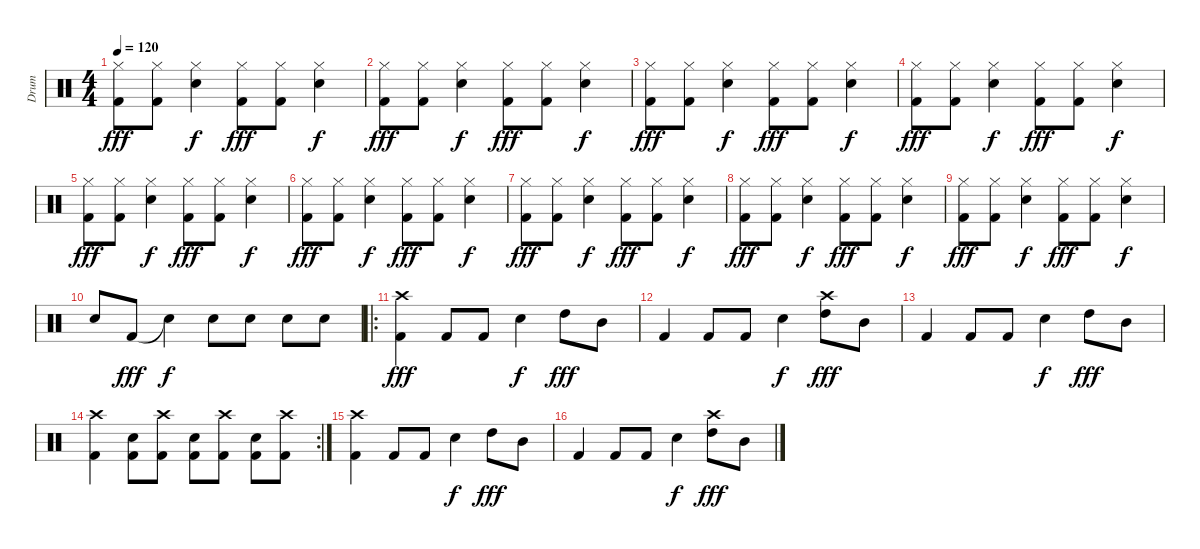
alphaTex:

\track ("Drum" "Drum") {instrument percussion}
\staff {score}
\articulation defaults
\ts (4 4)
\tempo 120
\clef neutral
\ks c
("Hi-Hat (closed)" "Kick (hit) 2").8{dy fff volume 2} ("Hi-Hat (closed)" "Kick (hit) 2").8 ("Hi-Hat (closed)" "Electric Snare (hit)").4{dy f} ("Hi-Hat (closed)" "Kick (hit) 2").8{dy fff} ("Hi-Hat (closed)" "Kick (hit) 2").8 ("Hi-Hat (closed)" "Electric Snare (hit)").4{dy f} |
("Hi-Hat (closed)" "Kick (hit) 2").8{dy fff volume 4} ("Hi-Hat (closed)" "Kick (hit) 2").8 ("Hi-Hat (closed)" "Electric Snare (hit)").4{dy f} ("Hi-Hat (closed)" "Kick (hit) 2").8{dy fff} ("Hi-Hat (closed)" "Kick (hit) 2").8 ("Hi-Hat (closed)" "Electric Snare (hit)").4{dy f} |
("Hi-Hat (closed)" "Kick (hit) 2").8{dy fff volume 6} ("Hi-Hat (closed)" "Kick (hit) 2").8 ("Hi-Hat (closed)" "Electric Snare (hit)").4{dy f} ("Hi-Hat (closed)" "Kick (hit) 2").8{dy fff} ("Hi-Hat (closed)" "Kick (hit) 2").8 ("Hi-Hat (closed)" "Electric Snare (hit)").4{dy f} |
("Hi-Hat (closed)" "Kick (hit) 2").8{dy fff volume 7} ("Hi-Hat (closed)" "Kick (hit) 2").8 ("Hi-Hat (closed)" "Electric Snare (hit)").4{dy f} ("Hi-Hat (closed)" "Kick (hit) 2").8{dy fff} ("Hi-Hat (closed)" "Kick (hit) 2").8 ("Hi-Hat (closed)" "Electric Snare (hit)").4{dy f} |
("Hi-Hat (closed)" "Kick (hit) 2").8{dy fff volume 9} ("Hi-Hat (closed)" "Kick (hit) 2").8 ("Hi-Hat (closed)" "Electric Snare (hit)").4{dy f} ("Hi-Hat (closed)" "Kick (hit) 2").8{dy fff} ("Hi-Hat (closed)" "Kick (hit) 2").8 ("Hi-Hat (closed)" "Electric Snare (hit)").4{dy f} |
("Hi-Hat (closed)" "Kick (hit) 2").8{dy fff volume 10} ("Hi-Hat (closed)" "Kick (hit) 2").8 ("Hi-Hat (closed)" "Electric Snare (hit)").4{dy f} ("Hi-Hat (closed)" "Kick (hit) 2").8{dy fff} ("Hi-Hat (closed)" "Kick (hit) 2").8 ("Hi-Hat (closed)" "Electric Snare (hit)").4{dy f} |
("Hi-Hat (closed)" "Kick (hit) 2").8{dy fff volume 12} ("Hi-Hat (closed)" "Kick (hit) 2").8 ("Hi-Hat (closed)" "Electric Snare (hit)").4{dy f} ("Hi-Hat (closed)" "Kick (hit) 2").8{dy fff} ("Hi-Hat (closed)" "Kick (hit) 2").8 ("Hi-Hat (closed)" "Electric Snare (hit)").4{dy f} |
("Hi-Hat (closed)" "Kick (hit) 2").8{dy fff volume 13} ("Hi-Hat (closed)" "Kick (hit) 2").8 ("Hi-Hat (closed)" "Electric Snare (hit)").4{dy f} ("Hi-Hat (closed)" "Kick (hit) 2").8{dy fff} ("Hi-Hat (closed)" "Kick (hit) 2").8 ("Hi-Hat (closed)" "Electric Snare (hit)").4{dy f} |
("Hi-Hat (closed)" "Kick (hit) 2").8{dy fff volume 14} ("Hi-Hat (closed)" "Kick (hit) 2").8 ("Hi-Hat (closed)" "Electric Snare (hit)").4{dy f} ("Hi-Hat (closed)" "Kick (hit) 2").8{dy fff} ("Hi-Hat (closed)" "Kick (hit) 2").8 ("Hi-Hat (closed)" "Electric Snare (hit)").4{dy f} |
"Electric Snare (hit)".8{volume 16} "Kick (hit) 2".8{dy fff} "Snare (hit)"{t}.4{dy f} "Electric Snare (hit)".8 "Electric Snare (hit)".8 "Electric Snare (hit)".8 "Electric Snare (hit)".8 |
\ro
("Crash high (hit)" "Kick (hit) 2").4{dy fff} "Kick (hit) 2".8 "Kick (hit) 2".8 "Electric Snare (hit)".4{dy f} "High Tom (hit)".8{dy fff} "Mid Tom (hit)".8 |
"Kick (hit) 2".4 "Kick (hit) 2".8 "Kick (hit) 2".8 "Electric Snare (hit)".4{dy f} ("Crash high (hit)" "High Tom (hit)").8{dy fff} "Mid Tom (hit)".8 |
"Kick (hit) 2".4 "Kick (hit) 2".8 "Kick (hit) 2".8 "Electric Snare (hit)".4{dy f} "High Tom (hit)".8{dy fff} "Mid Tom (hit)".8 |
\rc 2
("Crash high (hit)" "Kick (hit) 2").4 ("Electric Snare (hit)" "Kick (hit) 2").8 ("Crash high (hit)" "Kick (hit) 2").8 ("Electric Snare (hit)" "Kick (hit) 2").8 ("Crash high (hit)" "Kick (hit) 2").8 ("Electric Snare (hit)" "Kick (hit) 2").8 ("Crash high (hit)" "Kick (hit) 2").8 |
("Crash high (hit)" "Kick (hit) 2").4 "Kick (hit) 2".8 "Kick (hit) 2".8 "Electric Snare (hit)".4{dy f} "High Tom (hit)".8{dy fff} "Mid Tom (hit)".8 |
"Kick (hit) 2".4 "Kick (hit) 2".8 "Kick (hit) 2".8 "Electric Snare (hit)".4{dy f} ("Crash high (hit)" "High Tom (hit)").8{dy fff} "Mid Tom (hit)".8
